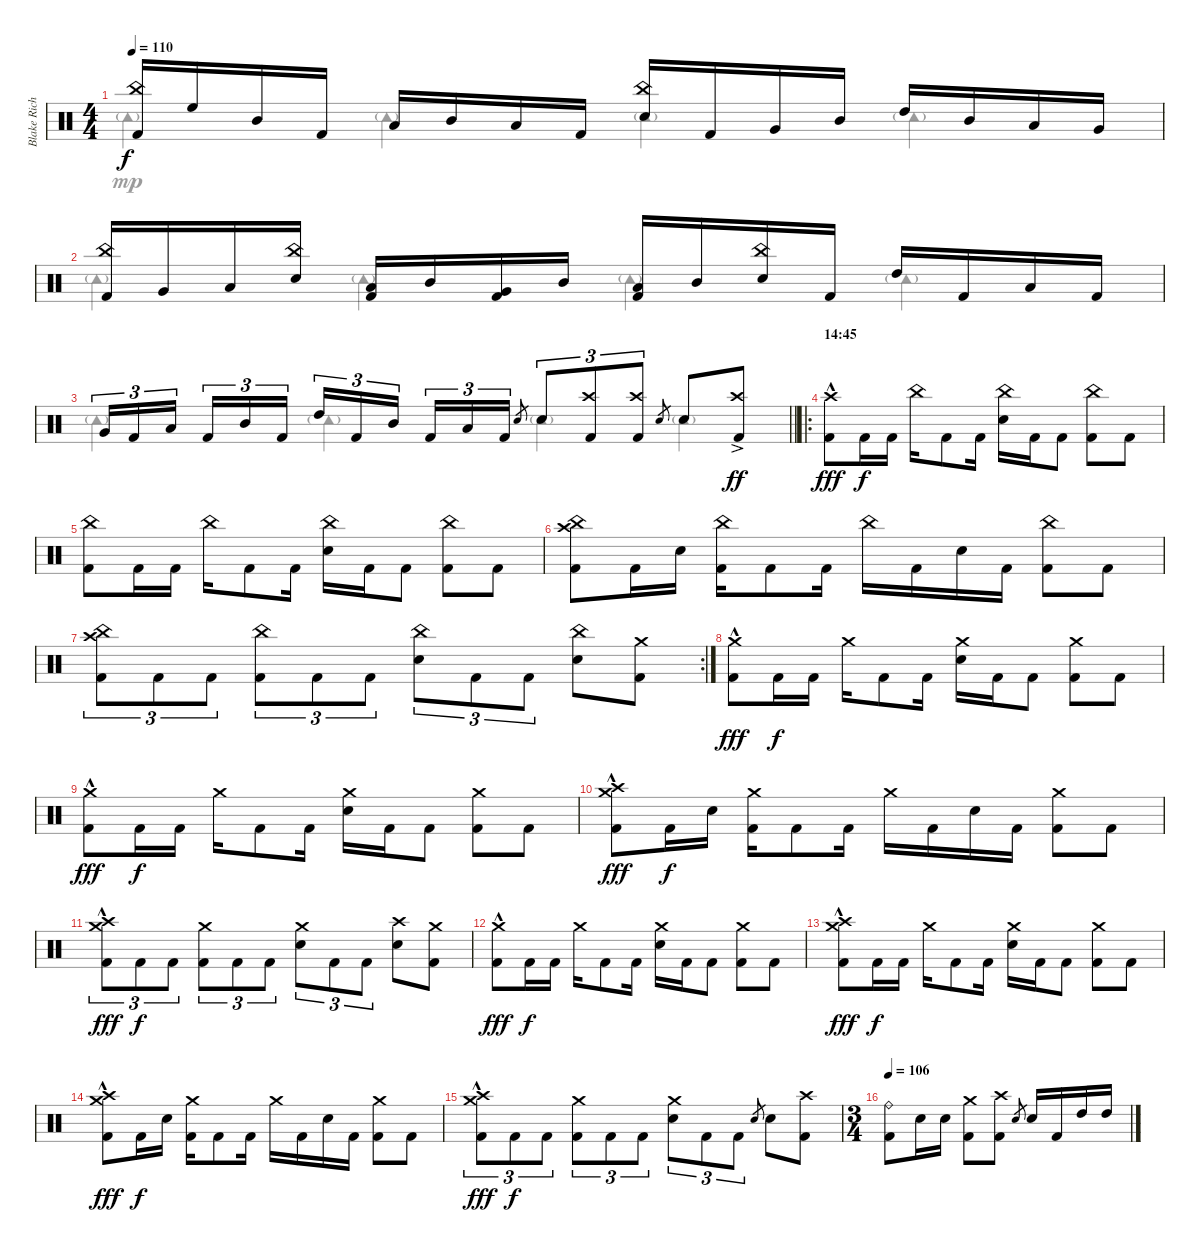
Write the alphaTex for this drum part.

\track ("Blake Richardson" "Blake Rich") {instrument percussion}
\staff {score}
\articulation defaults
\voice
\ts (4 4)
\tempo 110
\clef neutral
\ks c
("China (hit)" "Kick (hit) 2").16{dy f} "High Floor Tom (hit)".16 "Mid Tom (hit)".16 "Kick (hit) 2".16 "Low Tom (hit)".16 "Mid Tom (hit)".16 "Low Tom (hit)".16 "Kick (hit) 2".16 ("China (hit)" "Electric Snare (hit)").16 "Kick (hit) 2".16 "Very Low Tom (hit)".16 "Mid Tom (hit)".16 "High Tom (hit)".16 "Mid Tom (hit)".16 "Low Tom (hit)".16 "Very Low Tom (hit)".16 |
("China (hit)" "Kick (hit) 2").16 "Very Low Tom (hit)".16 "Low Tom (hit)".16 ("China (hit)" "Electric Snare (hit)").16 ("Low Tom (hit)" "Kick (hit) 2").16 "Mid Tom (hit)".16 ("Very Low Tom (hit)" "Kick (hit) 2").16 "Mid Tom (hit)".16 ("Low Tom (hit)" "Kick (hit) 2").16 "Mid Tom (hit)".16 ("China (hit)" "Electric Snare (hit)").16 "Kick (hit) 2".16 "High Tom (hit)".16 "Kick (hit) 2".16 "Low Tom (hit)".16 "Kick (hit) 2".16 |
\barLineRight lightlight "Very Low Tom (hit)".16{tu (3 2) volume 13} "Kick (hit) 2".16{tu (3 2)} "Low Tom (hit)".16{tu (3 2) beam splitsecondary} "Kick (hit) 2".16{tu (3 2)} "Mid Tom (hit)".16{tu (3 2)} "Kick (hit) 2".16{tu (3 2)} "High Tom (hit)".16{tu (3 2)} "Kick (hit) 2".16{tu (3 2)} "Mid Tom (hit)".16{tu (3 2) beam splitsecondary} "Kick (hit) 2".16{tu (3 2)} "Low Tom (hit)".16{tu (3 2)} "Kick (hit) 2".16{tu (3 2)} "Electric Snare (hit)".8{gr} "Electric Snare (hit)".8{tu (3 2)}
("Crash high (hit)" "Kick (hit) 2").8{tu (3 2)} ("Crash high (hit)" "Kick (hit) 2").8{tu (3 2)} "Electric Snare (hit)".8{gr} "Electric Snare (hit)".8 ("Crash high (hit)"{ac} "Kick (hit) 2").8{dy ff} |
\ro
\section ("" "14:45")
("Crash high (hit)"{hac} "Kick (hit) 2").8{dy fff volume 14} "Kick (hit) 2".16{dy f} "Kick (hit) 2".16 "China (hit)".16 "Kick (hit) 2".8 "Kick (hit) 2".16 ("China (hit)" "Electric Snare (hit)").16 "Kick (hit) 2".16 "Kick (hit) 2".8 ("China (hit)" "Kick (hit) 2").8 "Kick (hit) 2".8 |
("China (hit)" "Kick (hit) 2").8 "Kick (hit) 2".16 "Kick (hit) 2".16 "China (hit)".16 "Kick (hit) 2".8 "Kick (hit) 2".16 ("China (hit)" "Electric Snare (hit)").16 "Kick (hit) 2".16 "Kick (hit) 2".8 ("China (hit)" "Kick (hit) 2").8 "Kick (hit) 2".8 |
("Crash high (hit)" "China (hit)" "Kick (hit) 2").8 "Kick (hit) 2".16 "Electric Snare (hit)".16 ("China (hit)" "Kick (hit) 2").16 "Kick (hit) 2".8 "Kick (hit) 2".16 "China (hit)".16 "Kick (hit) 2".16 "Electric Snare (hit)".16 "Kick (hit) 2".16 ("China (hit)" "Kick (hit) 2").8 "Kick (hit) 2".8 |
\rc 2
("Crash high (hit)" "China (hit)" "Kick (hit) 2").8{tu (3 2)} "Kick (hit) 2".8{tu (3 2)} "Kick (hit) 2".8{tu (3 2)} ("China (hit)" "Kick (hit) 2").8{tu (3 2)} "Kick (hit) 2".8{tu (3 2)} "Kick (hit) 2".8{tu (3 2)} ("China (hit)" "Electric Snare (hit)").8{tu (3 2)} "Kick (hit) 2".8{tu (3 2)} "Kick (hit) 2".8{tu (3 2)} ("China (hit)" "Electric Snare (hit)").8 ("Crash medium (hit)" "Kick (hit) 2").8 |
("Crash medium (hit)"{hac} "Kick (hit) 2").8{dy fff} "Kick (hit) 2".16{dy f} "Kick (hit) 2".16 "Crash medium (hit)".16 "Kick (hit) 2".8 "Kick (hit) 2".16 ("Crash medium (hit)" "Electric Snare (hit)").16 "Kick (hit) 2".16 "Kick (hit) 2".8 ("Crash medium (hit)" "Kick (hit) 2").8 "Kick (hit) 2".8 |
("Crash medium (hit)"{hac} "Kick (hit) 2").8{dy fff} "Kick (hit) 2".16{dy f} "Kick (hit) 2".16 "Crash medium (hit)".16 "Kick (hit) 2".8 "Kick (hit) 2".16 ("Crash medium (hit)" "Electric Snare (hit)").16 "Kick (hit) 2".16 "Kick (hit) 2".8 ("Crash medium (hit)" "Kick (hit) 2").8 "Kick (hit) 2".8 |
("Crash high (hit)"{hac} "Crash medium (hit)"{hac} "Kick (hit) 2").8{dy fff} "Kick (hit) 2".16{dy f} "Electric Snare (hit)".16 ("Crash medium (hit)" "Kick (hit) 2").16 "Kick (hit) 2".8 "Kick (hit) 2".16 "Crash medium (hit)".16 "Kick (hit) 2".16 "Electric Snare (hit)".16 "Kick (hit) 2".16 ("Crash medium (hit)" "Kick (hit) 2").8 "Kick (hit) 2".8 |
("Crash high (hit)"{hac} "Crash medium (hit)"{hac} "Kick (hit) 2").8{tu (3 2) dy fff} "Kick (hit) 2".8{tu (3 2) dy f} "Kick (hit) 2".8{tu (3 2)} ("Crash medium (hit)" "Kick (hit) 2").8{tu (3 2)} "Kick (hit) 2".8{tu (3 2)} "Kick (hit) 2".8{tu (3 2)} ("Crash medium (hit)" "Electric Snare (hit)").8{tu (3 2)} "Kick (hit) 2".8{tu (3 2)} "Kick (hit) 2".8{tu (3 2)} ("Crash high (hit)" "Electric Snare (hit)").8 ("Crash medium (hit)" "Kick (hit) 2").8 |
("Crash medium (hit)"{hac} "Kick (hit) 2").8{dy fff} "Kick (hit) 2".16{dy f} "Kick (hit) 2".16 "Crash medium (hit)".16 "Kick (hit) 2".8 "Kick (hit) 2".16 ("Crash medium (hit)" "Electric Snare (hit)").16 "Kick (hit) 2".16 "Kick (hit) 2".8 ("Crash medium (hit)" "Kick (hit) 2").8 "Kick (hit) 2".8 |
("Crash high (hit)"{hac} "Crash medium (hit)" "Kick (hit) 2").8{dy fff} "Kick (hit) 2".16{dy f} "Kick (hit) 2".16 "Crash medium (hit)".16 "Kick (hit) 2".8 "Kick (hit) 2".16 ("Crash medium (hit)" "Electric Snare (hit)").16 "Kick (hit) 2".16 "Kick (hit) 2".8 ("Crash medium (hit)" "Kick (hit) 2").8 "Kick (hit) 2".8 |
("Crash high (hit)"{hac} "Crash medium (hit)"{hac} "Kick (hit) 2").8{dy fff} "Kick (hit) 2".16{dy f} "Electric Snare (hit)".16 ("Crash medium (hit)" "Kick (hit) 2").16 "Kick (hit) 2".8 "Kick (hit) 2".16 "Crash medium (hit)".16 "Kick (hit) 2".16 "Electric Snare (hit)".16 "Kick (hit) 2".16 ("Crash medium (hit)" "Kick (hit) 2").8 "Kick (hit) 2".8 |
("Crash high (hit)"{hac} "Crash medium (hit)"{hac} "Kick (hit) 2").8{tu (3 2) dy fff} "Kick (hit) 2".8{tu (3 2) dy f} "Kick (hit) 2".8{tu (3 2)} ("Crash medium (hit)" "Kick (hit) 2").8{tu (3 2)} "Kick (hit) 2".8{tu (3 2)} "Kick (hit) 2".8{tu (3 2)} ("Crash medium (hit)" "Electric Snare (hit)").8{tu (3 2)} "Kick (hit) 2".8{tu (3 2)} "Kick (hit) 2".8{tu (3 2)} "Electric Snare (hit)".8{gr} "Electric Snare (hit)".8 ("Crash high (hit)" "Kick (hit) 2").8 |
\ts (3 4)
\tempo 106
("Ride (bell)" "Kick (hit) 2").8 "Electric Snare (hit)".16 "Electric Snare (hit)".16 ("Crash medium (hit)" "Kick (hit) 2").8 ("Crash high (hit)" "Kick (hit) 2").8 "Electric Snare (hit)".8{gr} "Electric Snare (hit)".16 "Kick (hit) 2".16 "High Tom (hit)".16 "High Tom (hit)".16
\voice
\clef neutral
\ottava regular
\simile none
\ks c "Tambourine (hit)"{g}.4{dy mp} "Tambourine (hit)"{g}.4 "Tambourine (hit)"{g}.4 "Tambourine (hit)"{g}.4
|
"Tambourine (hit)"{g}.4 "Tambourine (hit)"{g}.4 "Tambourine (hit)"{g}.4 "Tambourine (hit)"{g}.4 |
\barLineRight lightlight "Tambourine (hit)"{g}.4 "Tambourine (hit)"{g}.4 "Tambourine (hit)"{g}.4 "Tambourine (hit)"{g}.4
|
|
|
|
|
|
|
|
|
|
|
|
|
